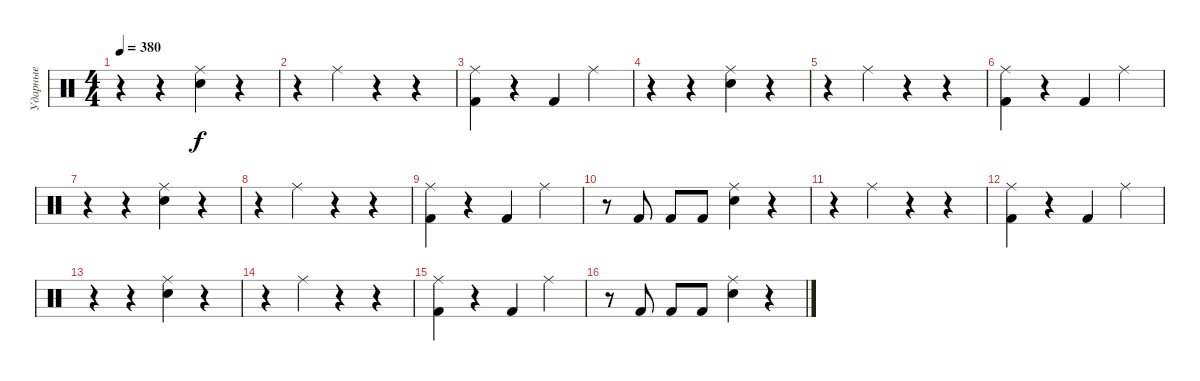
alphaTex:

\track ("Ударные" "Ударные") {instrument percussion}
\staff {score}
\articulation defaults
\ts (4 4)
\tempo 380
\clef neutral
\ks c
r.4{dy f} r.4 ("Electric Snare (hit)" "Ride (middle)").4 r.4 |
r.4 "Ride (middle)".4 r.4 r.4 |
("Kick (hit) 2" "Ride (middle)").4 r.4 "Kick (hit) 2".4 "Ride (middle)".4 |
r.4 r.4 ("Electric Snare (hit)" "Ride (middle)").4 r.4 |
r.4 "Ride (middle)".4 r.4 r.4 |
("Kick (hit) 2" "Ride (middle)").4 r.4 "Kick (hit) 2".4 "Ride (middle)".4 |
r.4 r.4 ("Electric Snare (hit)" "Ride (middle)").4 r.4 |
r.4 "Ride (middle)".4 r.4 r.4 |
("Kick (hit) 2" "Ride (middle)").4 r.4 "Kick (hit) 2".4 "Ride (middle)".4 |
r.8 "Kick (hit) 2".8 "Kick (hit) 2".8 "Kick (hit) 2".8 ("Electric Snare (hit)" "Ride (middle)").4 r.4 |
r.4 "Ride (middle)".4 r.4 r.4 |
("Kick (hit) 2" "Ride (middle)").4 r.4 "Kick (hit) 2".4 "Ride (middle)".4 |
r.4 r.4 ("Electric Snare (hit)" "Ride (middle)").4 r.4 |
r.4 "Ride (middle)".4 r.4 r.4 |
("Kick (hit) 2" "Ride (middle)").4 r.4 "Kick (hit) 2".4 "Ride (middle)".4 |
r.8 "Kick (hit) 2".8 "Kick (hit) 2".8 "Kick (hit) 2".8 ("Electric Snare (hit)" "Ride (middle)").4 r.4
